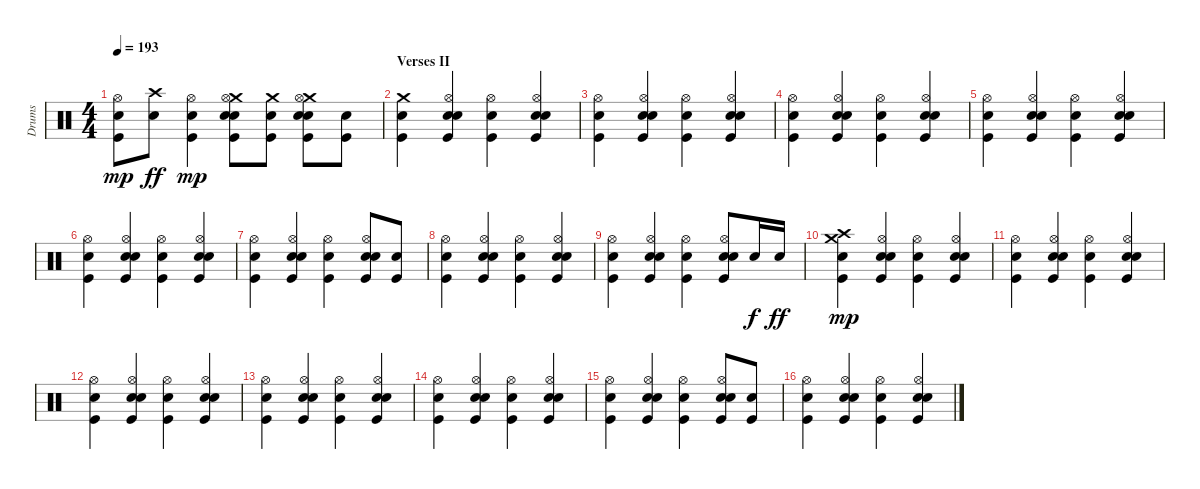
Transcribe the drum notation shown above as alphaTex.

\track ("Drums" "Drums") {instrument percussion}
\staff {score}
\articulation defaults
\ts (4 4)
\tempo 193
\clef neutral
\ks c
("Kick (hit)" "Snare (hit) 2" "Hi-Hat (open)").8{dy mp} ("Crash high (hit)" "Electric Snare (hit)").8{dy ff} ("Kick (hit)" "Snare (hit) 2" "Hi-Hat (open)").4{dy mp} ("Crash medium (hit)" "Kick (hit)" "Snare (hit) 2" "Electric Snare (hit)" "Hi-Hat (open)").8 ("Crash medium (hit)" "Kick (hit)" "Snare (hit) 2").8 ("Crash medium (hit)" "Kick (hit)" "Snare (hit) 2" "Electric Snare (hit)" "Hi-Hat (open)").8 ("Kick (hit)" "Snare (hit) 2").8 |
\section ("" "Verses II")
("Crash medium (hit)" "Kick (hit)" "Snare (hit) 2").4 ("Kick (hit)" "Snare (hit) 2" "Electric Snare (hit)" "Hi-Hat (open)").4 ("Kick (hit)" "Snare (hit) 2" "Hi-Hat (open)").4 ("Kick (hit)" "Snare (hit) 2" "Electric Snare (hit)" "Hi-Hat (open)").4 |
("Kick (hit)" "Snare (hit) 2" "Hi-Hat (open)").4 ("Kick (hit)" "Snare (hit) 2" "Electric Snare (hit)" "Hi-Hat (open)").4 ("Kick (hit)" "Snare (hit) 2" "Hi-Hat (open)").4 ("Kick (hit)" "Snare (hit) 2" "Electric Snare (hit)" "Hi-Hat (open)").4 |
("Kick (hit)" "Snare (hit) 2" "Hi-Hat (open)").4 ("Kick (hit)" "Snare (hit) 2" "Electric Snare (hit)" "Hi-Hat (open)").4 ("Kick (hit)" "Snare (hit) 2" "Hi-Hat (open)").4 ("Kick (hit)" "Snare (hit) 2" "Electric Snare (hit)" "Hi-Hat (open)").4 |
("Kick (hit)" "Snare (hit) 2" "Hi-Hat (open)").4 ("Kick (hit)" "Snare (hit) 2" "Electric Snare (hit)" "Hi-Hat (open)").4 ("Kick (hit)" "Snare (hit) 2" "Hi-Hat (open)").4 ("Kick (hit)" "Snare (hit) 2" "Electric Snare (hit)" "Hi-Hat (open)").4 |
("Kick (hit)" "Snare (hit) 2" "Hi-Hat (open)").4 ("Kick (hit)" "Snare (hit) 2" "Electric Snare (hit)" "Hi-Hat (open)").4 ("Kick (hit)" "Snare (hit) 2" "Hi-Hat (open)").4 ("Kick (hit)" "Snare (hit) 2" "Electric Snare (hit)" "Hi-Hat (open)").4 |
("Kick (hit)" "Snare (hit) 2" "Hi-Hat (open)").4 ("Kick (hit)" "Snare (hit) 2" "Electric Snare (hit)" "Hi-Hat (open)").4 ("Kick (hit)" "Snare (hit) 2" "Hi-Hat (open)").4 ("Kick (hit)" "Snare (hit) 2" "Electric Snare (hit)" "Hi-Hat (open)").8 ("Kick (hit)" "Snare (hit) 2").8 |
("Kick (hit)" "Snare (hit) 2" "Hi-Hat (open)").4 ("Kick (hit)" "Snare (hit) 2" "Electric Snare (hit)" "Hi-Hat (open)").4 ("Kick (hit)" "Snare (hit) 2" "Hi-Hat (open)").4 ("Kick (hit)" "Snare (hit) 2" "Electric Snare (hit)" "Hi-Hat (open)").4 |
("Kick (hit)" "Snare (hit) 2" "Hi-Hat (open)").4 ("Kick (hit)" "Snare (hit) 2" "Electric Snare (hit)" "Hi-Hat (open)").4 ("Kick (hit)" "Snare (hit) 2" "Hi-Hat (open)").4 ("Kick (hit)" "Snare (hit) 2" "Electric Snare (hit)" "Hi-Hat (open)").8 "Electric Snare (hit)".16{dy f} "Electric Snare (hit)".16{dy ff} |
("Crash high (hit)" "Crash medium (hit)" "Kick (hit)" "Snare (hit) 2").4{dy mp} ("Kick (hit)" "Snare (hit) 2" "Electric Snare (hit)" "Hi-Hat (open)").4 ("Kick (hit)" "Snare (hit) 2" "Hi-Hat (open)").4 ("Kick (hit)" "Snare (hit) 2" "Electric Snare (hit)" "Hi-Hat (open)").4 |
("Kick (hit)" "Snare (hit) 2" "Hi-Hat (open)").4 ("Kick (hit)" "Snare (hit) 2" "Electric Snare (hit)" "Hi-Hat (open)").4 ("Kick (hit)" "Snare (hit) 2" "Hi-Hat (open)").4 ("Kick (hit)" "Snare (hit) 2" "Electric Snare (hit)" "Hi-Hat (open)").4 |
("Kick (hit)" "Snare (hit) 2" "Hi-Hat (open)").4 ("Kick (hit)" "Snare (hit) 2" "Electric Snare (hit)" "Hi-Hat (open)").4 ("Kick (hit)" "Snare (hit) 2" "Hi-Hat (open)").4 ("Kick (hit)" "Snare (hit) 2" "Electric Snare (hit)" "Hi-Hat (open)").4 |
("Kick (hit)" "Snare (hit) 2" "Hi-Hat (open)").4 ("Kick (hit)" "Snare (hit) 2" "Electric Snare (hit)" "Hi-Hat (open)").4 ("Kick (hit)" "Snare (hit) 2" "Hi-Hat (open)").4 ("Kick (hit)" "Snare (hit) 2" "Electric Snare (hit)" "Hi-Hat (open)").4 |
("Kick (hit)" "Snare (hit) 2" "Hi-Hat (open)").4 ("Kick (hit)" "Snare (hit) 2" "Electric Snare (hit)" "Hi-Hat (open)").4 ("Kick (hit)" "Snare (hit) 2" "Hi-Hat (open)").4 ("Kick (hit)" "Snare (hit) 2" "Electric Snare (hit)" "Hi-Hat (open)").4 |
("Kick (hit)" "Snare (hit) 2" "Hi-Hat (open)").4 ("Kick (hit)" "Snare (hit) 2" "Electric Snare (hit)" "Hi-Hat (open)").4 ("Kick (hit)" "Snare (hit) 2" "Hi-Hat (open)").4 ("Kick (hit)" "Snare (hit) 2" "Electric Snare (hit)" "Hi-Hat (open)").8 ("Kick (hit)" "Snare (hit) 2").8 |
("Kick (hit)" "Snare (hit) 2" "Hi-Hat (open)").4 ("Kick (hit)" "Snare (hit) 2" "Electric Snare (hit)" "Hi-Hat (open)").4 ("Kick (hit)" "Snare (hit) 2" "Hi-Hat (open)").4 ("Kick (hit)" "Snare (hit) 2" "Electric Snare (hit)" "Hi-Hat (open)").4
